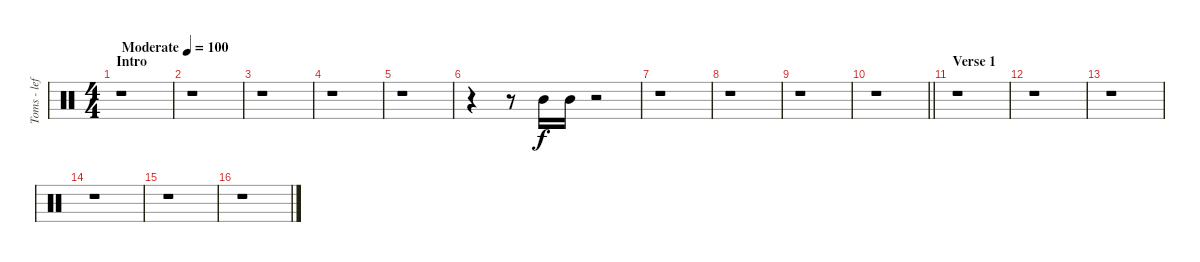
\track ("Toms - left" "Toms - lef") {instrument percussion}
\staff {score}
\articulation defaults
\ts (4 4)
\section ("" "Intro")
\tempo (100 "Moderate")
\clef neutral
\ks c
r.1{dy f balance 5} |
r.1 |
r.1 |
r.1 |
r.1 |
r.4 r.8 "Mid Tom (hit)".16 "Mid Tom (hit)".16 r.2 |
r.1 |
r.1 |
r.1 |
\barLineRight lightlight
r.1 |
\section ("" "Verse 1")
r.1 |
r.1 |
r.1 |
r.1 |
r.1 |
r.1
